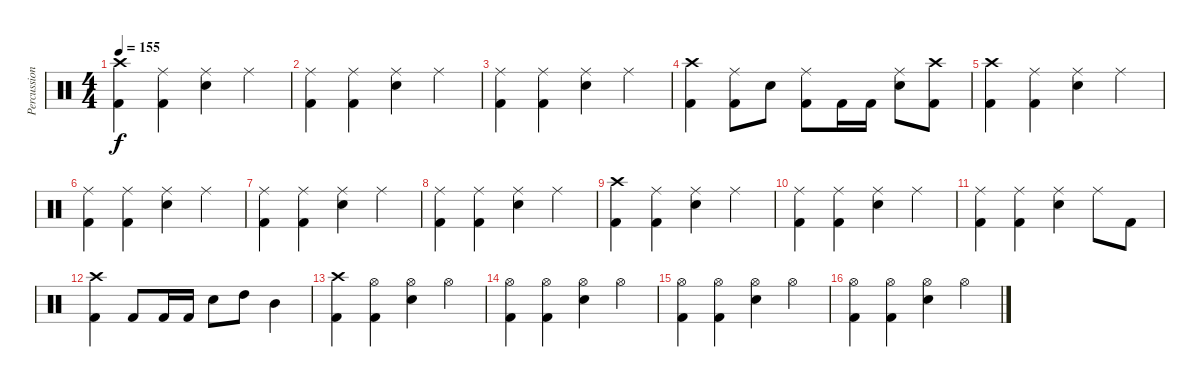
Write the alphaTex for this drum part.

\track ("Percussion" "Percussion") {instrument percussion}
\staff {score}
\articulation defaults
\ts (4 4)
\tempo 155
\clef neutral
\ks c
("Crash high (hit)" "Kick (hit) 2").4{dy f} ("Ride (middle)" "Kick (hit) 2").4 ("Ride (middle)" "Electric Snare (hit)").4 "Ride (middle)".4 |
("Ride (middle)" "Kick (hit) 2").4 ("Ride (middle)" "Kick (hit) 2").4 ("Ride (middle)" "Electric Snare (hit)").4 "Ride (middle)".4 |
("Ride (middle)" "Kick (hit) 2").4 ("Ride (middle)" "Kick (hit) 2").4 ("Ride (middle)" "Electric Snare (hit)").4 "Ride (middle)".4 |
("Crash high (hit)" "Kick (hit) 2").4 ("Ride (middle)" "Kick (hit) 2").8 "Electric Snare (hit)".8 ("Ride (middle)" "Kick (hit) 2").8 "Kick (hit) 2".16 "Kick (hit) 2".16 ("Ride (middle)" "Electric Snare (hit)").8 ("Crash high (hit)" "Kick (hit) 2").8 |
("Crash high (hit)" "Kick (hit) 2").4 ("Ride (middle)" "Kick (hit) 2").4 ("Ride (middle)" "Electric Snare (hit)").4 "Ride (middle)".4 |
("Ride (middle)" "Kick (hit) 2").4 ("Ride (middle)" "Kick (hit) 2").4 ("Ride (middle)" "Electric Snare (hit)").4 "Ride (middle)".4 |
("Ride (middle)" "Kick (hit) 2").4 ("Ride (middle)" "Kick (hit) 2").4 ("Ride (middle)" "Electric Snare (hit)").4 "Ride (middle)".4 |
("Ride (middle)" "Kick (hit) 2").4 ("Ride (middle)" "Kick (hit) 2").4 ("Ride (middle)" "Electric Snare (hit)").4 "Ride (middle)".4 |
("Crash high (hit)" "Kick (hit) 2").4 ("Ride (middle)" "Kick (hit) 2").4 ("Ride (middle)" "Electric Snare (hit)").4 "Ride (middle)".4 |
("Ride (middle)" "Kick (hit) 2").4 ("Ride (middle)" "Kick (hit) 2").4 ("Ride (middle)" "Electric Snare (hit)").4 "Ride (middle)".4 |
("Ride (middle)" "Kick (hit) 2").4 ("Ride (middle)" "Kick (hit) 2").4 ("Ride (middle)" "Electric Snare (hit)").4 "Ride (middle)".8 "Kick (hit) 2".8 |
("Crash high (hit)" "Kick (hit) 2").4 "Kick (hit) 2".8 "Kick (hit) 2".16 "Kick (hit) 2".16 "Electric Snare (hit)".8 "High Tom (hit)".8 "Mid Tom (hit)".4 |
("Crash high (hit)" "Kick (hit) 2").4 ("Hi-Hat (open)" "Kick (hit) 2").4 ("Hi-Hat (open)" "Electric Snare (hit)").4 "Hi-Hat (open)".4 |
("Hi-Hat (open)" "Kick (hit) 2").4 ("Hi-Hat (open)" "Kick (hit) 2").4 ("Hi-Hat (open)" "Electric Snare (hit)").4 "Hi-Hat (open)".4 |
("Hi-Hat (open)" "Kick (hit) 2").4 ("Hi-Hat (open)" "Kick (hit) 2").4 ("Hi-Hat (open)" "Electric Snare (hit)").4 "Hi-Hat (open)".4 |
("Hi-Hat (open)" "Kick (hit) 2").4 ("Hi-Hat (open)" "Kick (hit) 2").4 ("Hi-Hat (open)" "Electric Snare (hit)").4 "Hi-Hat (open)".4
